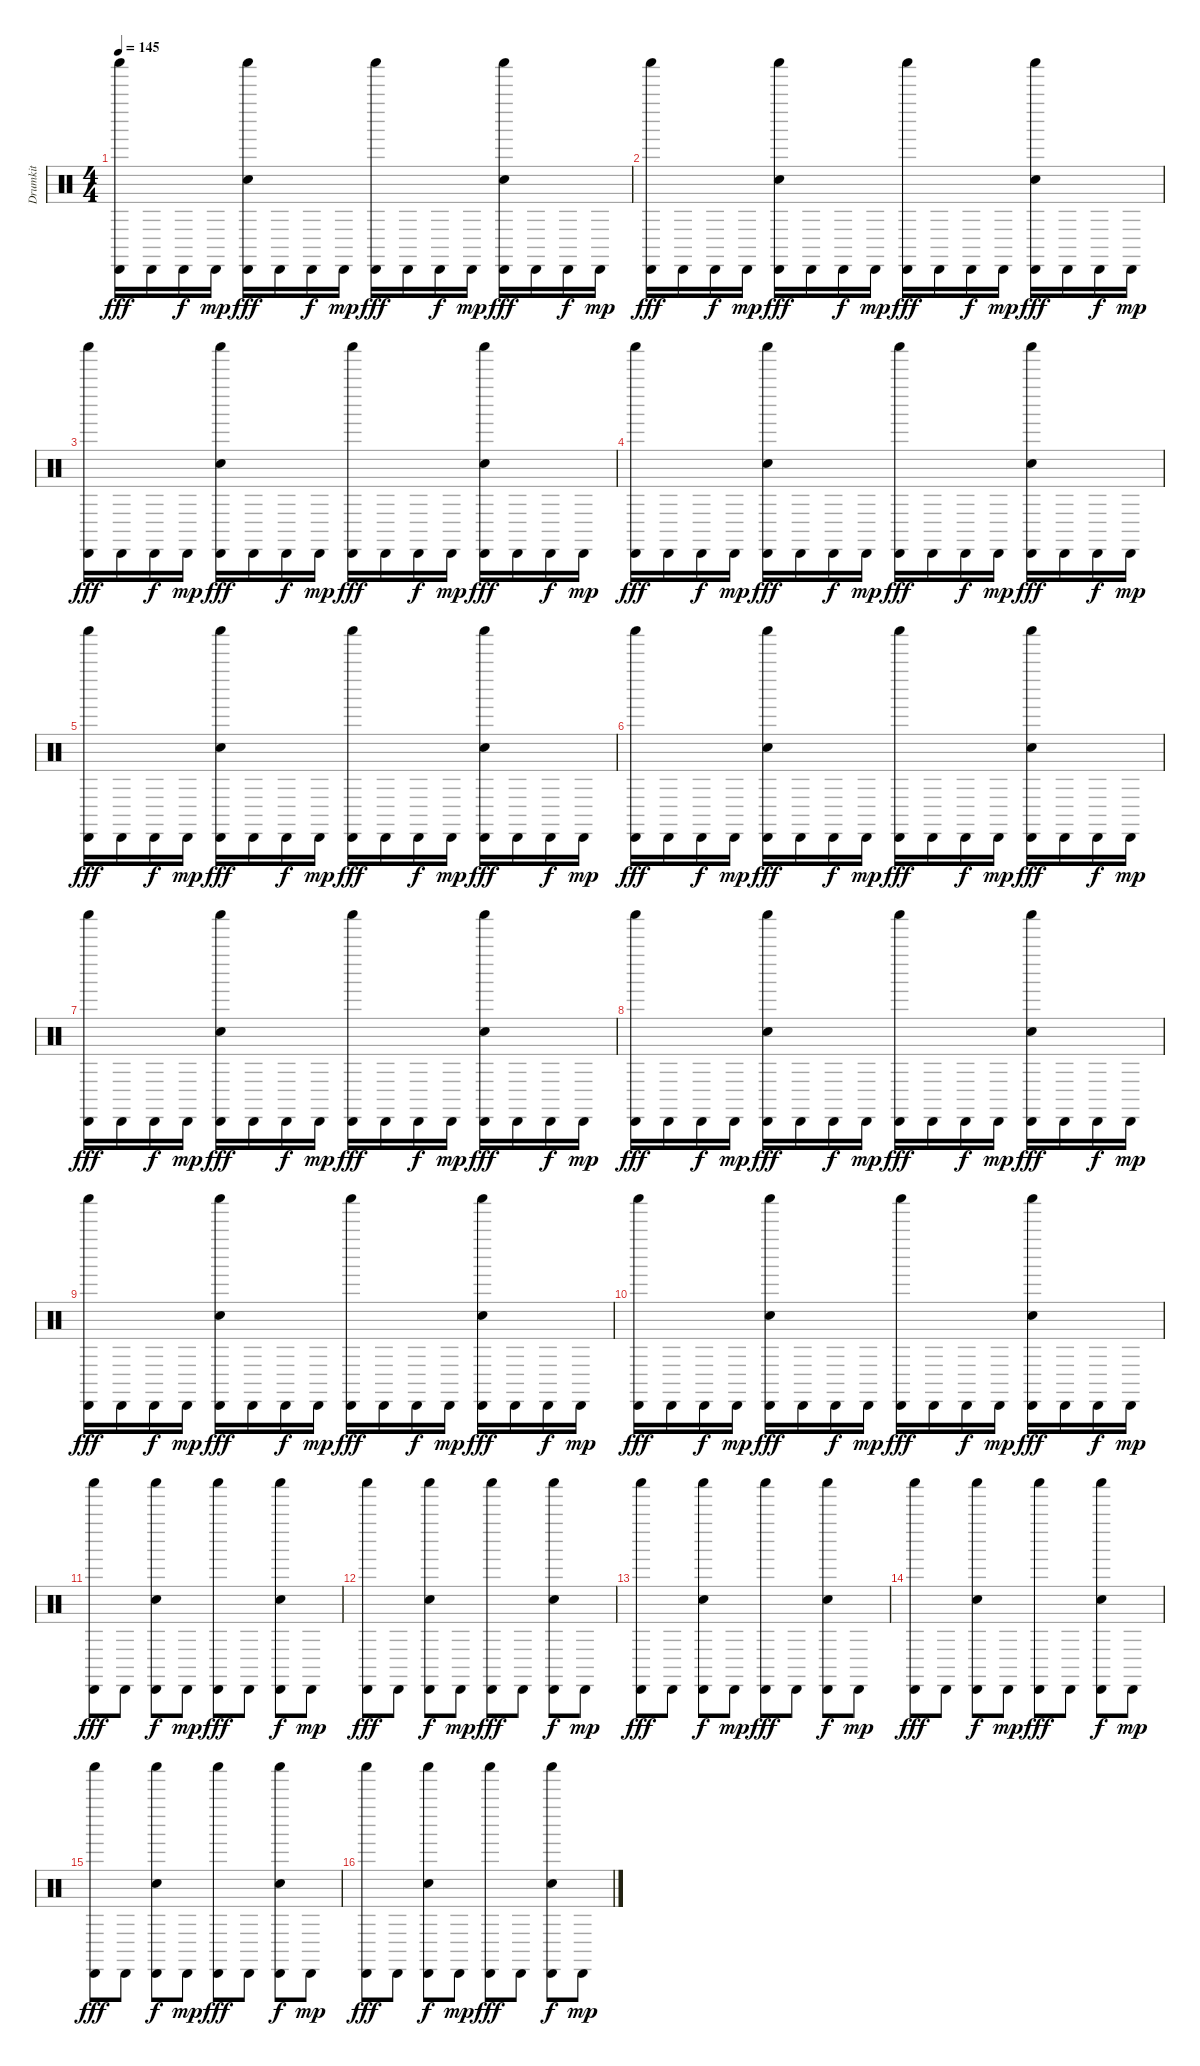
\track ("Drumkit" "Drumkit") {instrument percussion}
\staff {score}
\articulation defaults
\ts (4 4)
\tempo 145
\clef neutral
\ks c
("Shaker (hit)" "Cabasa (hit)").16{dy fff} "Cabasa (hit)".16 "Cabasa (hit)".16{dy f} "Cabasa (hit)".16{dy mp} ("Shaker (hit)" "Snare (hit) 2" "Cabasa (hit)").16{dy fff} "Cabasa (hit)".16 "Cabasa (hit)".16{dy f} "Cabasa (hit)".16{dy mp} ("Shaker (hit)" "Cabasa (hit)").16{dy fff} "Cabasa (hit)".16 "Cabasa (hit)".16{dy f} "Cabasa (hit)".16{dy mp} ("Shaker (hit)" "Snare (hit) 2" "Cabasa (hit)").16{dy fff} "Cabasa (hit)".16 "Cabasa (hit)".16{dy f} "Cabasa (hit)".16{dy mp} |
("Shaker (hit)" "Cabasa (hit)").16{dy fff} "Cabasa (hit)".16 "Cabasa (hit)".16{dy f} "Cabasa (hit)".16{dy mp} ("Shaker (hit)" "Snare (hit) 2" "Cabasa (hit)").16{dy fff} "Cabasa (hit)".16 "Cabasa (hit)".16{dy f} "Cabasa (hit)".16{dy mp} ("Shaker (hit)" "Cabasa (hit)").16{dy fff} "Cabasa (hit)".16 "Cabasa (hit)".16{dy f} "Cabasa (hit)".16{dy mp} ("Shaker (hit)" "Snare (hit) 2" "Cabasa (hit)").16{dy fff} "Cabasa (hit)".16 "Cabasa (hit)".16{dy f} "Cabasa (hit)".16{dy mp} |
("Shaker (hit)" "Cabasa (hit)").16{dy fff} "Cabasa (hit)".16 "Cabasa (hit)".16{dy f} "Cabasa (hit)".16{dy mp} ("Shaker (hit)" "Snare (hit) 2" "Cabasa (hit)").16{dy fff} "Cabasa (hit)".16 "Cabasa (hit)".16{dy f} "Cabasa (hit)".16{dy mp} ("Shaker (hit)" "Cabasa (hit)").16{dy fff} "Cabasa (hit)".16 "Cabasa (hit)".16{dy f} "Cabasa (hit)".16{dy mp} ("Shaker (hit)" "Snare (hit) 2" "Cabasa (hit)").16{dy fff} "Cabasa (hit)".16 "Cabasa (hit)".16{dy f} "Cabasa (hit)".16{dy mp} |
("Shaker (hit)" "Cabasa (hit)").16{dy fff} "Cabasa (hit)".16 "Cabasa (hit)".16{dy f} "Cabasa (hit)".16{dy mp} ("Shaker (hit)" "Snare (hit) 2" "Cabasa (hit)").16{dy fff} "Cabasa (hit)".16 "Cabasa (hit)".16{dy f} "Cabasa (hit)".16{dy mp} ("Shaker (hit)" "Cabasa (hit)").16{dy fff} "Cabasa (hit)".16 "Cabasa (hit)".16{dy f} "Cabasa (hit)".16{dy mp} ("Shaker (hit)" "Snare (hit) 2" "Cabasa (hit)").16{dy fff} "Cabasa (hit)".16 "Cabasa (hit)".16{dy f} "Cabasa (hit)".16{dy mp} |
("Shaker (hit)" "Cabasa (hit)").16{dy fff} "Cabasa (hit)".16 "Cabasa (hit)".16{dy f} "Cabasa (hit)".16{dy mp} ("Shaker (hit)" "Snare (hit) 2" "Cabasa (hit)").16{dy fff} "Cabasa (hit)".16 "Cabasa (hit)".16{dy f} "Cabasa (hit)".16{dy mp} ("Shaker (hit)" "Cabasa (hit)").16{dy fff} "Cabasa (hit)".16 "Cabasa (hit)".16{dy f} "Cabasa (hit)".16{dy mp} ("Shaker (hit)" "Snare (hit) 2" "Cabasa (hit)").16{dy fff} "Cabasa (hit)".16 "Cabasa (hit)".16{dy f} "Cabasa (hit)".16{dy mp} |
("Shaker (hit)" "Cabasa (hit)").16{dy fff} "Cabasa (hit)".16 "Cabasa (hit)".16{dy f} "Cabasa (hit)".16{dy mp} ("Shaker (hit)" "Snare (hit) 2" "Cabasa (hit)").16{dy fff} "Cabasa (hit)".16 "Cabasa (hit)".16{dy f} "Cabasa (hit)".16{dy mp} ("Shaker (hit)" "Cabasa (hit)").16{dy fff} "Cabasa (hit)".16 "Cabasa (hit)".16{dy f} "Cabasa (hit)".16{dy mp} ("Shaker (hit)" "Snare (hit) 2" "Cabasa (hit)").16{dy fff} "Cabasa (hit)".16 "Cabasa (hit)".16{dy f} "Cabasa (hit)".16{dy mp} |
("Shaker (hit)" "Cabasa (hit)").16{dy fff} "Cabasa (hit)".16 "Cabasa (hit)".16{dy f} "Cabasa (hit)".16{dy mp} ("Shaker (hit)" "Snare (hit) 2" "Cabasa (hit)").16{dy fff} "Cabasa (hit)".16 "Cabasa (hit)".16{dy f} "Cabasa (hit)".16{dy mp} ("Shaker (hit)" "Cabasa (hit)").16{dy fff} "Cabasa (hit)".16 "Cabasa (hit)".16{dy f} "Cabasa (hit)".16{dy mp} ("Shaker (hit)" "Snare (hit) 2" "Cabasa (hit)").16{dy fff} "Cabasa (hit)".16 "Cabasa (hit)".16{dy f} "Cabasa (hit)".16{dy mp} |
("Shaker (hit)" "Cabasa (hit)").16{dy fff} "Cabasa (hit)".16 "Cabasa (hit)".16{dy f} "Cabasa (hit)".16{dy mp} ("Shaker (hit)" "Snare (hit) 2" "Cabasa (hit)").16{dy fff} "Cabasa (hit)".16 "Cabasa (hit)".16{dy f} "Cabasa (hit)".16{dy mp} ("Shaker (hit)" "Cabasa (hit)").16{dy fff} "Cabasa (hit)".16 "Cabasa (hit)".16{dy f} "Cabasa (hit)".16{dy mp} ("Shaker (hit)" "Snare (hit) 2" "Cabasa (hit)").16{dy fff} "Cabasa (hit)".16 "Cabasa (hit)".16{dy f} "Cabasa (hit)".16{dy mp} |
("Shaker (hit)" "Cabasa (hit)").16{dy fff} "Cabasa (hit)".16 "Cabasa (hit)".16{dy f} "Cabasa (hit)".16{dy mp} ("Shaker (hit)" "Snare (hit) 2" "Cabasa (hit)").16{dy fff} "Cabasa (hit)".16 "Cabasa (hit)".16{dy f} "Cabasa (hit)".16{dy mp} ("Shaker (hit)" "Cabasa (hit)").16{dy fff} "Cabasa (hit)".16 "Cabasa (hit)".16{dy f} "Cabasa (hit)".16{dy mp} ("Shaker (hit)" "Snare (hit) 2" "Cabasa (hit)").16{dy fff} "Cabasa (hit)".16 "Cabasa (hit)".16{dy f} "Cabasa (hit)".16{dy mp} |
("Shaker (hit)" "Cabasa (hit)").16{dy fff} "Cabasa (hit)".16 "Cabasa (hit)".16{dy f} "Cabasa (hit)".16{dy mp} ("Shaker (hit)" "Snare (hit) 2" "Cabasa (hit)").16{dy fff} "Cabasa (hit)".16 "Cabasa (hit)".16{dy f} "Cabasa (hit)".16{dy mp} ("Shaker (hit)" "Cabasa (hit)").16{dy fff} "Cabasa (hit)".16 "Cabasa (hit)".16{dy f} "Cabasa (hit)".16{dy mp} ("Shaker (hit)" "Snare (hit) 2" "Cabasa (hit)").16{dy fff} "Cabasa (hit)".16 "Cabasa (hit)".16{dy f} "Cabasa (hit)".16{dy mp} |
("Shaker (hit)" "Cabasa (hit)").8{dy fff} "Cabasa (hit)".8 ("Shaker (hit)" "Snare (hit) 2" "Cabasa (hit)").8{dy f} "Cabasa (hit)".8{dy mp} ("Shaker (hit)" "Cabasa (hit)").8{dy fff} "Cabasa (hit)".8 ("Shaker (hit)" "Snare (hit) 2" "Cabasa (hit)").8{dy f} "Cabasa (hit)".8{dy mp} |
("Shaker (hit)" "Cabasa (hit)").8{dy fff} "Cabasa (hit)".8 ("Shaker (hit)" "Snare (hit) 2" "Cabasa (hit)").8{dy f} "Cabasa (hit)".8{dy mp} ("Shaker (hit)" "Cabasa (hit)").8{dy fff} "Cabasa (hit)".8 ("Shaker (hit)" "Snare (hit) 2" "Cabasa (hit)").8{dy f} "Cabasa (hit)".8{dy mp} |
("Shaker (hit)" "Cabasa (hit)").8{dy fff} "Cabasa (hit)".8 ("Shaker (hit)" "Snare (hit) 2" "Cabasa (hit)").8{dy f} "Cabasa (hit)".8{dy mp} ("Shaker (hit)" "Cabasa (hit)").8{dy fff} "Cabasa (hit)".8 ("Shaker (hit)" "Snare (hit) 2" "Cabasa (hit)").8{dy f} "Cabasa (hit)".8{dy mp} |
("Shaker (hit)" "Cabasa (hit)").8{dy fff} "Cabasa (hit)".8 ("Shaker (hit)" "Snare (hit) 2" "Cabasa (hit)").8{dy f} "Cabasa (hit)".8{dy mp} ("Shaker (hit)" "Cabasa (hit)").8{dy fff} "Cabasa (hit)".8 ("Shaker (hit)" "Snare (hit) 2" "Cabasa (hit)").8{dy f} "Cabasa (hit)".8{dy mp} |
("Shaker (hit)" "Cabasa (hit)").8{dy fff} "Cabasa (hit)".8 ("Shaker (hit)" "Snare (hit) 2" "Cabasa (hit)").8{dy f} "Cabasa (hit)".8{dy mp} ("Shaker (hit)" "Cabasa (hit)").8{dy fff} "Cabasa (hit)".8 ("Shaker (hit)" "Snare (hit) 2" "Cabasa (hit)").8{dy f} "Cabasa (hit)".8{dy mp} |
("Shaker (hit)" "Cabasa (hit)").8{dy fff} "Cabasa (hit)".8 ("Shaker (hit)" "Snare (hit) 2" "Cabasa (hit)").8{dy f} "Cabasa (hit)".8{dy mp} ("Shaker (hit)" "Cabasa (hit)").8{dy fff} "Cabasa (hit)".8 ("Shaker (hit)" "Snare (hit) 2" "Cabasa (hit)").8{dy f} "Cabasa (hit)".8{dy mp}
